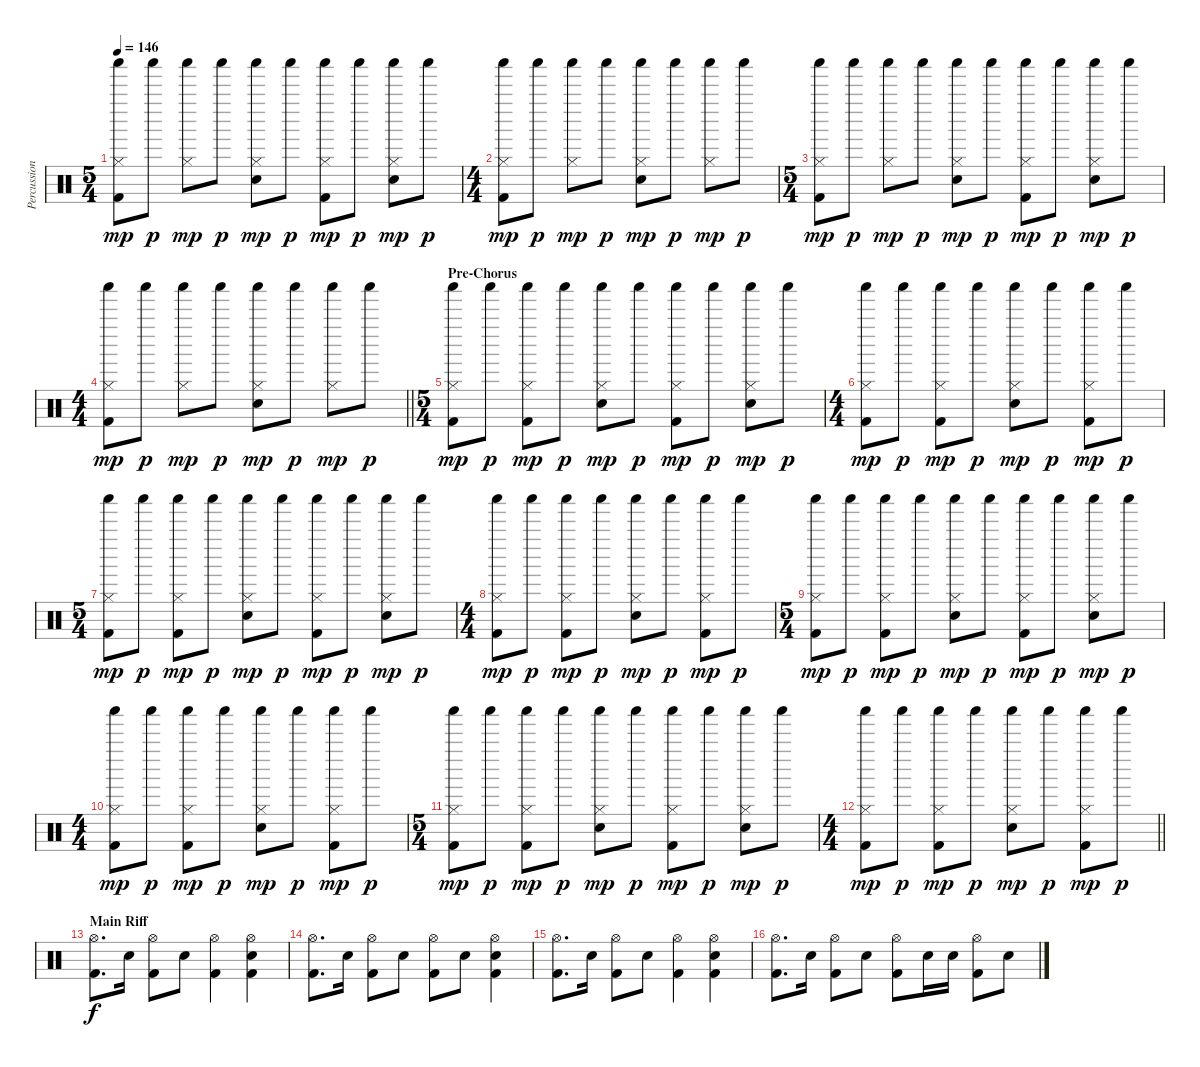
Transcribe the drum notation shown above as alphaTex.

\track ("Percussion" "Percussion") {instrument percussion}
\staff {score}
\articulation defaults
\ts (5 4)
\tempo 146
\clef neutral
\ks c
("Hi-Hat (closed)" "Shaker (hit)" "Kick (hit) 2").8{dy mp} "Shaker (hit)".8{dy p} ("Hi-Hat (closed)" "Shaker (hit)").8{dy mp} "Shaker (hit)".8{dy p} ("Hi-Hat (closed)" "Shaker (hit)" "Electric Snare (hit)").8{dy mp} "Shaker (hit)".8{dy p} ("Hi-Hat (closed)" "Shaker (hit)" "Kick (hit) 2").8{dy mp} "Shaker (hit)".8{dy p} ("Hi-Hat (closed)" "Shaker (hit)" "Electric Snare (hit)").8{dy mp} "Shaker (hit)".8{dy p} |
\ts (4 4)
("Hi-Hat (closed)" "Shaker (hit)" "Kick (hit) 2").8{dy mp} "Shaker (hit)".8{dy p} ("Hi-Hat (closed)" "Shaker (hit)").8{dy mp} "Shaker (hit)".8{dy p} ("Hi-Hat (closed)" "Shaker (hit)" "Electric Snare (hit)").8{dy mp} "Shaker (hit)".8{dy p} ("Hi-Hat (closed)" "Shaker (hit)").8{dy mp} "Shaker (hit)".8{dy p} |
\ts (5 4)
("Hi-Hat (closed)" "Shaker (hit)" "Kick (hit) 2").8{dy mp} "Shaker (hit)".8{dy p} ("Hi-Hat (closed)" "Shaker (hit)").8{dy mp} "Shaker (hit)".8{dy p} ("Hi-Hat (closed)" "Shaker (hit)" "Electric Snare (hit)").8{dy mp} "Shaker (hit)".8{dy p} ("Hi-Hat (closed)" "Shaker (hit)" "Kick (hit) 2").8{dy mp} "Shaker (hit)".8{dy p} ("Hi-Hat (closed)" "Shaker (hit)" "Electric Snare (hit)").8{dy mp} "Shaker (hit)".8{dy p} |
\ts (4 4)
\barLineRight lightlight
("Hi-Hat (closed)" "Shaker (hit)" "Kick (hit) 2").8{dy mp} "Shaker (hit)".8{dy p} ("Hi-Hat (closed)" "Shaker (hit)").8{dy mp} "Shaker (hit)".8{dy p} ("Hi-Hat (closed)" "Shaker (hit)" "Electric Snare (hit)").8{dy mp} "Shaker (hit)".8{dy p} ("Hi-Hat (closed)" "Shaker (hit)").8{dy mp} "Shaker (hit)".8{dy p} |
\ts (5 4)
\section ("" "Pre-Chorus")
("Hi-Hat (closed)" "Shaker (hit)" "Kick (hit) 2").8{dy mp} "Shaker (hit)".8{dy p} ("Hi-Hat (closed)" "Shaker (hit)" "Kick (hit) 2").8{dy mp} "Shaker (hit)".8{dy p} ("Hi-Hat (closed)" "Shaker (hit)" "Electric Snare (hit)").8{dy mp} "Shaker (hit)".8{dy p} ("Hi-Hat (closed)" "Shaker (hit)" "Kick (hit) 2").8{dy mp} "Shaker (hit)".8{dy p} ("Hi-Hat (closed)" "Shaker (hit)" "Electric Snare (hit)").8{dy mp} "Shaker (hit)".8{dy p} |
\ts (4 4)
("Hi-Hat (closed)" "Shaker (hit)" "Kick (hit) 2").8{dy mp} "Shaker (hit)".8{dy p} ("Hi-Hat (closed)" "Shaker (hit)" "Kick (hit) 2").8{dy mp} "Shaker (hit)".8{dy p} ("Hi-Hat (closed)" "Shaker (hit)" "Electric Snare (hit)").8{dy mp} "Shaker (hit)".8{dy p} ("Hi-Hat (closed)" "Shaker (hit)" "Kick (hit) 2").8{dy mp} "Shaker (hit)".8{dy p} |
\ts (5 4)
("Hi-Hat (closed)" "Shaker (hit)" "Kick (hit) 2").8{dy mp} "Shaker (hit)".8{dy p} ("Hi-Hat (closed)" "Shaker (hit)" "Kick (hit) 2").8{dy mp} "Shaker (hit)".8{dy p} ("Hi-Hat (closed)" "Shaker (hit)" "Electric Snare (hit)").8{dy mp} "Shaker (hit)".8{dy p} ("Hi-Hat (closed)" "Shaker (hit)" "Kick (hit) 2").8{dy mp} "Shaker (hit)".8{dy p} ("Hi-Hat (closed)" "Shaker (hit)" "Electric Snare (hit)").8{dy mp} "Shaker (hit)".8{dy p} |
\ts (4 4)
("Hi-Hat (closed)" "Shaker (hit)" "Kick (hit) 2").8{dy mp} "Shaker (hit)".8{dy p} ("Hi-Hat (closed)" "Shaker (hit)" "Kick (hit) 2").8{dy mp} "Shaker (hit)".8{dy p} ("Hi-Hat (closed)" "Shaker (hit)" "Electric Snare (hit)").8{dy mp} "Shaker (hit)".8{dy p} ("Hi-Hat (closed)" "Shaker (hit)" "Kick (hit) 2").8{dy mp} "Shaker (hit)".8{dy p} |
\ts (5 4)
("Hi-Hat (closed)" "Shaker (hit)" "Kick (hit) 2").8{dy mp} "Shaker (hit)".8{dy p} ("Hi-Hat (closed)" "Shaker (hit)" "Kick (hit) 2").8{dy mp} "Shaker (hit)".8{dy p} ("Hi-Hat (closed)" "Shaker (hit)" "Electric Snare (hit)").8{dy mp} "Shaker (hit)".8{dy p} ("Hi-Hat (closed)" "Shaker (hit)" "Kick (hit) 2").8{dy mp} "Shaker (hit)".8{dy p} ("Hi-Hat (closed)" "Shaker (hit)" "Electric Snare (hit)").8{dy mp} "Shaker (hit)".8{dy p} |
\ts (4 4)
("Hi-Hat (closed)" "Shaker (hit)" "Kick (hit) 2").8{dy mp} "Shaker (hit)".8{dy p} ("Hi-Hat (closed)" "Shaker (hit)" "Kick (hit) 2").8{dy mp} "Shaker (hit)".8{dy p} ("Hi-Hat (closed)" "Shaker (hit)" "Electric Snare (hit)").8{dy mp} "Shaker (hit)".8{dy p} ("Hi-Hat (closed)" "Shaker (hit)" "Kick (hit) 2").8{dy mp} "Shaker (hit)".8{dy p} |
\ts (5 4)
("Hi-Hat (closed)" "Shaker (hit)" "Kick (hit) 2").8{dy mp} "Shaker (hit)".8{dy p} ("Hi-Hat (closed)" "Shaker (hit)" "Kick (hit) 2").8{dy mp} "Shaker (hit)".8{dy p} ("Hi-Hat (closed)" "Shaker (hit)" "Electric Snare (hit)").8{dy mp} "Shaker (hit)".8{dy p} ("Hi-Hat (closed)" "Shaker (hit)" "Kick (hit) 2").8{dy mp} "Shaker (hit)".8{dy p} ("Hi-Hat (closed)" "Shaker (hit)" "Electric Snare (hit)").8{dy mp} "Shaker (hit)".8{dy p} |
\ts (4 4)
\barLineRight lightlight
("Hi-Hat (closed)" "Shaker (hit)" "Kick (hit) 2").8{dy mp} "Shaker (hit)".8{dy p} ("Hi-Hat (closed)" "Shaker (hit)" "Kick (hit) 2").8{dy mp} "Shaker (hit)".8{dy p} ("Hi-Hat (closed)" "Shaker (hit)" "Electric Snare (hit)").8{dy mp} "Shaker (hit)".8{dy p} ("Hi-Hat (closed)" "Shaker (hit)" "Kick (hit) 2").8{dy mp} "Shaker (hit)".8{dy p} |
\section ("" "Main Riff")
("Hi-Hat (open)" "Kick (hit) 2").8{d dy f} "Electric Snare (hit)".16 ("Hi-Hat (open)" "Kick (hit) 2").8 "Electric Snare (hit)".8 ("Hi-Hat (open)" "Kick (hit) 2").4 ("Hi-Hat (open)" "Electric Snare (hit)" "Kick (hit) 2").4 |
("Hi-Hat (open)" "Kick (hit) 2").8{d} "Electric Snare (hit)".16 ("Hi-Hat (open)" "Kick (hit) 2").8 "Electric Snare (hit)".8 ("Hi-Hat (open)" "Kick (hit) 2").8 "Electric Snare (hit)".8 ("Hi-Hat (open)" "Electric Snare (hit)" "Kick (hit) 2").4 |
("Hi-Hat (open)" "Kick (hit) 2").8{d} "Electric Snare (hit)".16 ("Hi-Hat (open)" "Kick (hit) 2").8 "Electric Snare (hit)".8 ("Hi-Hat (open)" "Kick (hit) 2").4 ("Hi-Hat (open)" "Electric Snare (hit)" "Kick (hit) 2").4 |
("Hi-Hat (open)" "Kick (hit) 2").8{d} "Electric Snare (hit)".16 ("Hi-Hat (open)" "Kick (hit) 2").8 "Electric Snare (hit)".8 ("Hi-Hat (open)" "Kick (hit) 2").8 "Electric Snare (hit)".16 "Electric Snare (hit)".16 ("Hi-Hat (open)" "Kick (hit) 2").8 "Electric Snare (hit)".8
